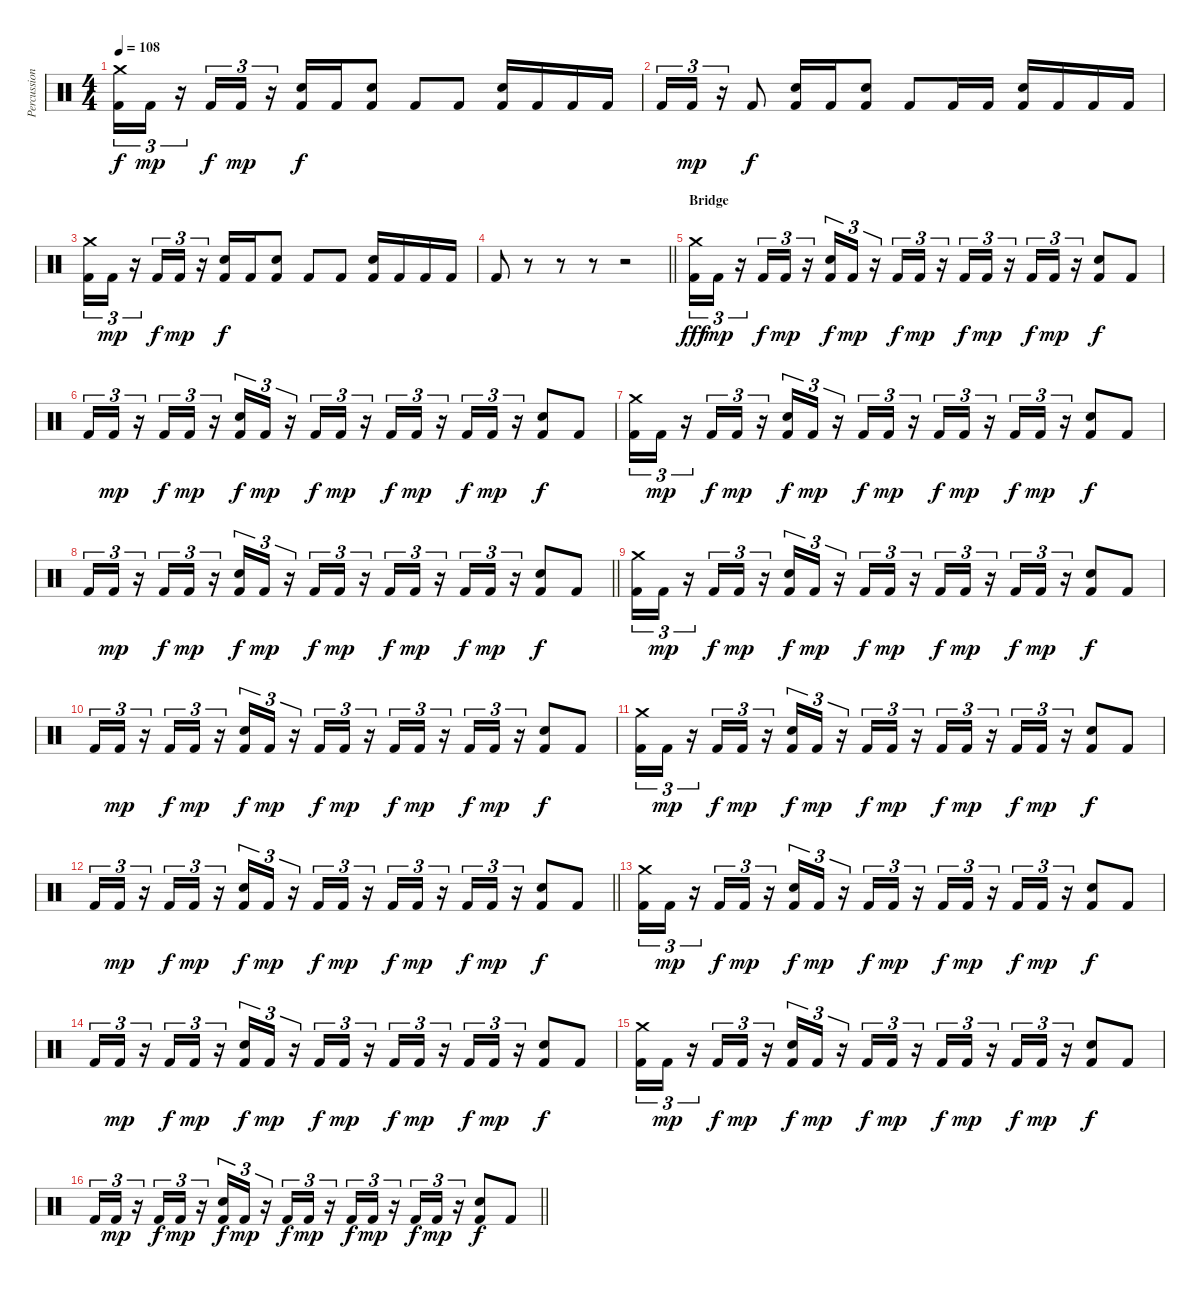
\track ("Percussion" "Percussion") {instrument percussion}
\staff {score}
\articulation defaults
\ts (4 4)
\tempo 108
\clef neutral
\ks c
("Crash medium (hit)" "Kick (hit) 2").16{tu (3 2) dy f} "Kick (hit) 2".16{tu (3 2) dy mp} r.16{tu (3 2)} "Kick (hit) 2".16{tu (3 2) dy f} "Kick (hit) 2".16{tu (3 2) dy mp} r.16{tu (3 2)} ("Electric Snare (hit)" "Kick (hit) 2").16{dy f} "Kick (hit) 2".16 ("Electric Snare (hit)" "Kick (hit) 2").8 "Kick (hit) 2".8 "Kick (hit) 2".8 ("Electric Snare (hit)" "Kick (hit) 2").16 "Kick (hit) 2".16 "Kick (hit) 2".16 "Kick (hit) 2".16 |
"Kick (hit) 2".16{tu (3 2)} "Kick (hit) 2".16{tu (3 2) dy mp} r.16{tu (3 2)} "Kick (hit) 2".8{dy f} ("Electric Snare (hit)" "Kick (hit) 2").16 "Kick (hit) 2".16 ("Electric Snare (hit)" "Kick (hit) 2").8 "Kick (hit) 2".8 "Kick (hit) 2".16 "Kick (hit) 2".16 ("Electric Snare (hit)" "Kick (hit) 2").16 "Kick (hit) 2".16 "Kick (hit) 2".16 "Kick (hit) 2".16 |
("Crash medium (hit)" "Kick (hit) 2").16{tu (3 2)} "Kick (hit) 2".16{tu (3 2) dy mp} r.16{tu (3 2)} "Kick (hit) 2".16{tu (3 2) dy f} "Kick (hit) 2".16{tu (3 2) dy mp} r.16{tu (3 2)} ("Electric Snare (hit)" "Kick (hit) 2").16{dy f} "Kick (hit) 2".16 ("Electric Snare (hit)" "Kick (hit) 2").8 "Kick (hit) 2".8 "Kick (hit) 2".8 ("Electric Snare (hit)" "Kick (hit) 2").16 "Kick (hit) 2".16 "Kick (hit) 2".16 "Kick (hit) 2".16 |
\barLineRight lightlight "Kick (hit) 2".8
r.8 r.8 r.8 r.2 |
\section ("" "Bridge")
("Crash medium (hit)" "Kick (hit) 2").16{tu (3 2) dy fff} "Kick (hit) 2".16{tu (3 2) dy mp} r.16{tu (3 2)} "Kick (hit) 2".16{tu (3 2) dy f} "Kick (hit) 2".16{tu (3 2) dy mp} r.16{tu (3 2)} ("Electric Snare (hit)" "Kick (hit) 2").16{tu (3 2) dy f} "Kick (hit) 2".16{tu (3 2) dy mp} r.16{tu (3 2)} "Kick (hit) 2".16{tu (3 2) dy f} "Kick (hit) 2".16{tu (3 2) dy mp} r.16{tu (3 2)} "Kick (hit) 2".16{tu (3 2) dy f} "Kick (hit) 2".16{tu (3 2) dy mp} r.16{tu (3 2)} "Kick (hit) 2".16{tu (3 2) dy f} "Kick (hit) 2".16{tu (3 2) dy mp} r.16{tu (3 2)} ("Electric Snare (hit)" "Kick (hit) 2").8{dy f} "Kick (hit) 2".8 |
"Kick (hit) 2".16{tu (3 2)} "Kick (hit) 2".16{tu (3 2) dy mp} r.16{tu (3 2)} "Kick (hit) 2".16{tu (3 2) dy f} "Kick (hit) 2".16{tu (3 2) dy mp} r.16{tu (3 2)} ("Electric Snare (hit)" "Kick (hit) 2").16{tu (3 2) dy f} "Kick (hit) 2".16{tu (3 2) dy mp} r.16{tu (3 2)} "Kick (hit) 2".16{tu (3 2) dy f} "Kick (hit) 2".16{tu (3 2) dy mp} r.16{tu (3 2)} "Kick (hit) 2".16{tu (3 2) dy f} "Kick (hit) 2".16{tu (3 2) dy mp} r.16{tu (3 2)} "Kick (hit) 2".16{tu (3 2) dy f} "Kick (hit) 2".16{tu (3 2) dy mp} r.16{tu (3 2)} ("Electric Snare (hit)" "Kick (hit) 2").8{dy f} "Kick (hit) 2".8 |
("Crash medium (hit)" "Kick (hit) 2").16{tu (3 2)} "Kick (hit) 2".16{tu (3 2) dy mp} r.16{tu (3 2)} "Kick (hit) 2".16{tu (3 2) dy f} "Kick (hit) 2".16{tu (3 2) dy mp} r.16{tu (3 2)} ("Electric Snare (hit)" "Kick (hit) 2").16{tu (3 2) dy f} "Kick (hit) 2".16{tu (3 2) dy mp} r.16{tu (3 2)} "Kick (hit) 2".16{tu (3 2) dy f} "Kick (hit) 2".16{tu (3 2) dy mp} r.16{tu (3 2)} "Kick (hit) 2".16{tu (3 2) dy f} "Kick (hit) 2".16{tu (3 2) dy mp} r.16{tu (3 2)} "Kick (hit) 2".16{tu (3 2) dy f} "Kick (hit) 2".16{tu (3 2) dy mp} r.16{tu (3 2)} ("Electric Snare (hit)" "Kick (hit) 2").8{dy f} "Kick (hit) 2".8 |
\barLineRight lightlight "Kick (hit) 2".16{tu (3 2)} "Kick (hit) 2".16{tu (3 2) dy mp}
r.16{tu (3 2)} "Kick (hit) 2".16{tu (3 2) dy f} "Kick (hit) 2".16{tu (3 2) dy mp} r.16{tu (3 2)} ("Electric Snare (hit)" "Kick (hit) 2").16{tu (3 2) dy f} "Kick (hit) 2".16{tu (3 2) dy mp} r.16{tu (3 2)} "Kick (hit) 2".16{tu (3 2) dy f} "Kick (hit) 2".16{tu (3 2) dy mp} r.16{tu (3 2)} "Kick (hit) 2".16{tu (3 2) dy f} "Kick (hit) 2".16{tu (3 2) dy mp} r.16{tu (3 2)} "Kick (hit) 2".16{tu (3 2) dy f} "Kick (hit) 2".16{tu (3 2) dy mp} r.16{tu (3 2)} ("Electric Snare (hit)" "Kick (hit) 2").8{dy f} "Kick (hit) 2".8 |
("Crash medium (hit)" "Kick (hit) 2").16{tu (3 2)} "Kick (hit) 2".16{tu (3 2) dy mp} r.16{tu (3 2)} "Kick (hit) 2".16{tu (3 2) dy f} "Kick (hit) 2".16{tu (3 2) dy mp} r.16{tu (3 2)} ("Electric Snare (hit)" "Kick (hit) 2").16{tu (3 2) dy f} "Kick (hit) 2".16{tu (3 2) dy mp} r.16{tu (3 2)} "Kick (hit) 2".16{tu (3 2) dy f} "Kick (hit) 2".16{tu (3 2) dy mp} r.16{tu (3 2)} "Kick (hit) 2".16{tu (3 2) dy f} "Kick (hit) 2".16{tu (3 2) dy mp} r.16{tu (3 2)} "Kick (hit) 2".16{tu (3 2) dy f} "Kick (hit) 2".16{tu (3 2) dy mp} r.16{tu (3 2)} ("Electric Snare (hit)" "Kick (hit) 2").8{dy f} "Kick (hit) 2".8 |
"Kick (hit) 2".16{tu (3 2)} "Kick (hit) 2".16{tu (3 2) dy mp} r.16{tu (3 2)} "Kick (hit) 2".16{tu (3 2) dy f} "Kick (hit) 2".16{tu (3 2) dy mp} r.16{tu (3 2)} ("Electric Snare (hit)" "Kick (hit) 2").16{tu (3 2) dy f} "Kick (hit) 2".16{tu (3 2) dy mp} r.16{tu (3 2)} "Kick (hit) 2".16{tu (3 2) dy f} "Kick (hit) 2".16{tu (3 2) dy mp} r.16{tu (3 2)} "Kick (hit) 2".16{tu (3 2) dy f} "Kick (hit) 2".16{tu (3 2) dy mp} r.16{tu (3 2)} "Kick (hit) 2".16{tu (3 2) dy f} "Kick (hit) 2".16{tu (3 2) dy mp} r.16{tu (3 2)} ("Electric Snare (hit)" "Kick (hit) 2").8{dy f} "Kick (hit) 2".8 |
("Crash medium (hit)" "Kick (hit) 2").16{tu (3 2)} "Kick (hit) 2".16{tu (3 2) dy mp} r.16{tu (3 2)} "Kick (hit) 2".16{tu (3 2) dy f} "Kick (hit) 2".16{tu (3 2) dy mp} r.16{tu (3 2)} ("Electric Snare (hit)" "Kick (hit) 2").16{tu (3 2) dy f} "Kick (hit) 2".16{tu (3 2) dy mp} r.16{tu (3 2)} "Kick (hit) 2".16{tu (3 2) dy f} "Kick (hit) 2".16{tu (3 2) dy mp} r.16{tu (3 2)} "Kick (hit) 2".16{tu (3 2) dy f} "Kick (hit) 2".16{tu (3 2) dy mp} r.16{tu (3 2)} "Kick (hit) 2".16{tu (3 2) dy f} "Kick (hit) 2".16{tu (3 2) dy mp} r.16{tu (3 2)} ("Electric Snare (hit)" "Kick (hit) 2").8{dy f} "Kick (hit) 2".8 |
\barLineRight lightlight "Kick (hit) 2".16{tu (3 2)} "Kick (hit) 2".16{tu (3 2) dy mp}
r.16{tu (3 2)} "Kick (hit) 2".16{tu (3 2) dy f} "Kick (hit) 2".16{tu (3 2) dy mp} r.16{tu (3 2)} ("Electric Snare (hit)" "Kick (hit) 2").16{tu (3 2) dy f} "Kick (hit) 2".16{tu (3 2) dy mp} r.16{tu (3 2)} "Kick (hit) 2".16{tu (3 2) dy f} "Kick (hit) 2".16{tu (3 2) dy mp} r.16{tu (3 2)} "Kick (hit) 2".16{tu (3 2) dy f} "Kick (hit) 2".16{tu (3 2) dy mp} r.16{tu (3 2)} "Kick (hit) 2".16{tu (3 2) dy f} "Kick (hit) 2".16{tu (3 2) dy mp} r.16{tu (3 2)} ("Electric Snare (hit)" "Kick (hit) 2").8{dy f} "Kick (hit) 2".8 |
("Crash medium (hit)" "Kick (hit) 2").16{tu (3 2)} "Kick (hit) 2".16{tu (3 2) dy mp} r.16{tu (3 2)} "Kick (hit) 2".16{tu (3 2) dy f} "Kick (hit) 2".16{tu (3 2) dy mp} r.16{tu (3 2)} ("Electric Snare (hit)" "Kick (hit) 2").16{tu (3 2) dy f} "Kick (hit) 2".16{tu (3 2) dy mp} r.16{tu (3 2)} "Kick (hit) 2".16{tu (3 2) dy f} "Kick (hit) 2".16{tu (3 2) dy mp} r.16{tu (3 2)} "Kick (hit) 2".16{tu (3 2) dy f} "Kick (hit) 2".16{tu (3 2) dy mp} r.16{tu (3 2)} "Kick (hit) 2".16{tu (3 2) dy f} "Kick (hit) 2".16{tu (3 2) dy mp} r.16{tu (3 2)} ("Electric Snare (hit)" "Kick (hit) 2").8{dy f} "Kick (hit) 2".8 |
"Kick (hit) 2".16{tu (3 2)} "Kick (hit) 2".16{tu (3 2) dy mp} r.16{tu (3 2)} "Kick (hit) 2".16{tu (3 2) dy f} "Kick (hit) 2".16{tu (3 2) dy mp} r.16{tu (3 2)} ("Electric Snare (hit)" "Kick (hit) 2").16{tu (3 2) dy f} "Kick (hit) 2".16{tu (3 2) dy mp} r.16{tu (3 2)} "Kick (hit) 2".16{tu (3 2) dy f} "Kick (hit) 2".16{tu (3 2) dy mp} r.16{tu (3 2)} "Kick (hit) 2".16{tu (3 2) dy f} "Kick (hit) 2".16{tu (3 2) dy mp} r.16{tu (3 2)} "Kick (hit) 2".16{tu (3 2) dy f} "Kick (hit) 2".16{tu (3 2) dy mp} r.16{tu (3 2)} ("Electric Snare (hit)" "Kick (hit) 2").8{dy f} "Kick (hit) 2".8 |
("Crash medium (hit)" "Kick (hit) 2").16{tu (3 2)} "Kick (hit) 2".16{tu (3 2) dy mp} r.16{tu (3 2)} "Kick (hit) 2".16{tu (3 2) dy f} "Kick (hit) 2".16{tu (3 2) dy mp} r.16{tu (3 2)} ("Electric Snare (hit)" "Kick (hit) 2").16{tu (3 2) dy f} "Kick (hit) 2".16{tu (3 2) dy mp} r.16{tu (3 2)} "Kick (hit) 2".16{tu (3 2) dy f} "Kick (hit) 2".16{tu (3 2) dy mp} r.16{tu (3 2)} "Kick (hit) 2".16{tu (3 2) dy f} "Kick (hit) 2".16{tu (3 2) dy mp} r.16{tu (3 2)} "Kick (hit) 2".16{tu (3 2) dy f} "Kick (hit) 2".16{tu (3 2) dy mp} r.16{tu (3 2)} ("Electric Snare (hit)" "Kick (hit) 2").8{dy f} "Kick (hit) 2".8 |
\barLineRight lightlight "Kick (hit) 2".16{tu (3 2)} "Kick (hit) 2".16{tu (3 2) dy mp}
r.16{tu (3 2)} "Kick (hit) 2".16{tu (3 2) dy f} "Kick (hit) 2".16{tu (3 2) dy mp} r.16{tu (3 2)} ("Electric Snare (hit)" "Kick (hit) 2").16{tu (3 2) dy f} "Kick (hit) 2".16{tu (3 2) dy mp} r.16{tu (3 2)} "Kick (hit) 2".16{tu (3 2) dy f} "Kick (hit) 2".16{tu (3 2) dy mp} r.16{tu (3 2)} "Kick (hit) 2".16{tu (3 2) dy f} "Kick (hit) 2".16{tu (3 2) dy mp} r.16{tu (3 2)} "Kick (hit) 2".16{tu (3 2) dy f} "Kick (hit) 2".16{tu (3 2) dy mp} r.16{tu (3 2)} ("Electric Snare (hit)" "Kick (hit) 2").8{dy f} "Kick (hit) 2".8
